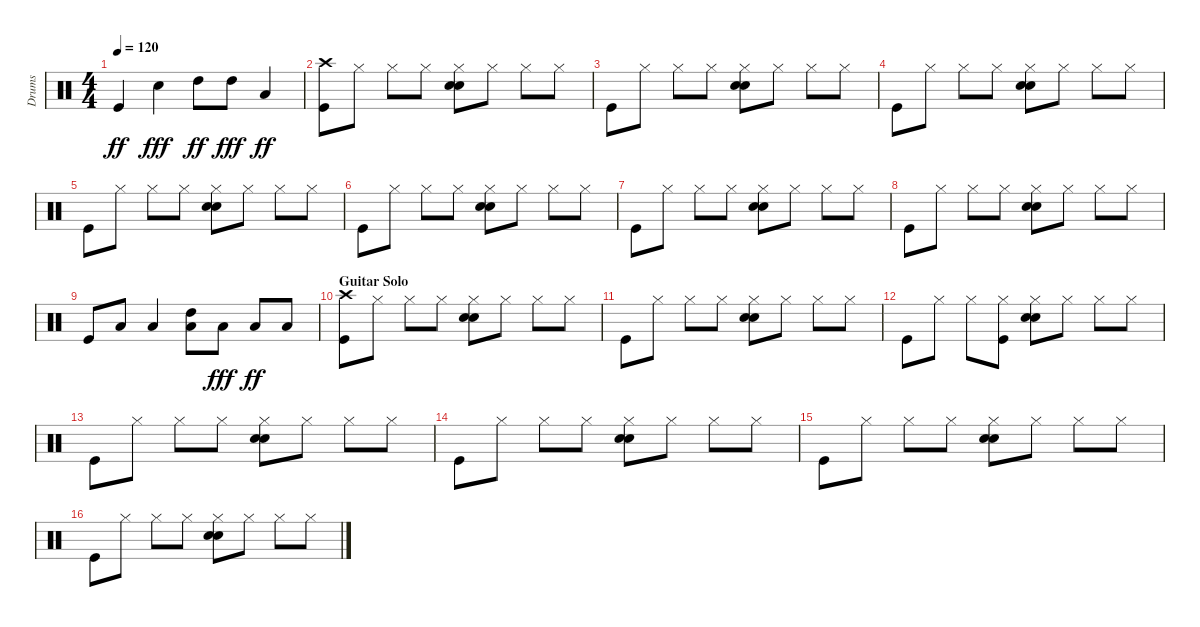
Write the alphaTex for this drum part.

\track ("Drums" "Drums") {instrument percussion}
\staff {score}
\articulation defaults
\ts (4 4)
\tempo 120
\clef neutral
\ks c "Kick (hit)".4{dy ff} "Snare (hit) 2".4{dy fff} "High Tom (hit)".8{dy ff} "High Tom (hit)".8{dy fff} "Low Tom (hit)".4{dy ff}
|
("Crash high (hit)" "Kick (hit)").8 "Hi-Hat (closed)".8 "Hi-Hat (closed)".8 "Hi-Hat (closed)".8 ("Electric Snare (hit)" "Hi-Hat (closed)" "Snare (hit) 2").8 "Hi-Hat (closed)".8 "Hi-Hat (closed)".8 "Hi-Hat (closed)".8 |
"Kick (hit)".8 "Hi-Hat (closed)".8 "Hi-Hat (closed)".8 "Hi-Hat (closed)".8 ("Electric Snare (hit)" "Hi-Hat (closed)" "Snare (hit) 2").8 "Hi-Hat (closed)".8 "Hi-Hat (closed)".8 "Hi-Hat (closed)".8 |
"Kick (hit)".8 "Hi-Hat (closed)".8 "Hi-Hat (closed)".8 "Hi-Hat (closed)".8 ("Electric Snare (hit)" "Hi-Hat (closed)" "Snare (hit) 2").8 "Hi-Hat (closed)".8 "Hi-Hat (closed)".8 "Hi-Hat (closed)".8 |
"Kick (hit)".8 "Hi-Hat (closed)".8 "Hi-Hat (closed)".8 "Hi-Hat (closed)".8 ("Electric Snare (hit)" "Hi-Hat (closed)" "Snare (hit) 2").8 "Hi-Hat (closed)".8 "Hi-Hat (closed)".8 "Hi-Hat (closed)".8 |
"Kick (hit)".8 "Hi-Hat (closed)".8 "Hi-Hat (closed)".8 "Hi-Hat (closed)".8 ("Electric Snare (hit)" "Hi-Hat (closed)" "Snare (hit) 2").8 "Hi-Hat (closed)".8 "Hi-Hat (closed)".8 "Hi-Hat (closed)".8 |
"Kick (hit)".8 "Hi-Hat (closed)".8 "Hi-Hat (closed)".8 "Hi-Hat (closed)".8 ("Electric Snare (hit)" "Hi-Hat (closed)" "Snare (hit) 2").8 "Hi-Hat (closed)".8 "Hi-Hat (closed)".8 "Hi-Hat (closed)".8 |
"Kick (hit)".8 "Hi-Hat (closed)".8 "Hi-Hat (closed)".8 "Hi-Hat (closed)".8 ("Electric Snare (hit)" "Hi-Hat (closed)" "Snare (hit) 2").8 "Hi-Hat (closed)".8 "Hi-Hat (closed)".8 "Hi-Hat (closed)".8 |
"Kick (hit)".8 "Low Tom (hit)".8 "Low Floor Tom (hit)".4 ("Low Tom (hit)" "High Tom (hit)").8 "Low Tom (hit)".8{dy fff} "Low Tom (hit)".8{dy ff} "Low Floor Tom (hit)".8 |
\section ("" "Guitar Solo")
("Crash high (hit)" "Kick (hit)").8 "Hi-Hat (closed)".8 "Hi-Hat (closed)".8 "Hi-Hat (closed)".8 ("Electric Snare (hit)" "Hi-Hat (closed)" "Snare (hit) 2").8 "Hi-Hat (closed)".8 "Hi-Hat (closed)".8 "Hi-Hat (closed)".8 |
"Kick (hit)".8 "Hi-Hat (closed)".8 "Hi-Hat (closed)".8 "Hi-Hat (closed)".8 ("Electric Snare (hit)" "Hi-Hat (closed)" "Snare (hit) 2").8 "Hi-Hat (closed)".8 "Hi-Hat (closed)".8 "Hi-Hat (closed)".8 |
"Kick (hit)".8 "Hi-Hat (closed)".8 "Hi-Hat (closed)".8 ("Kick (hit)" "Hi-Hat (closed)").8 ("Electric Snare (hit)" "Hi-Hat (closed)" "Snare (hit) 2").8 "Hi-Hat (closed)".8 "Hi-Hat (closed)".8 "Hi-Hat (closed)".8 |
"Kick (hit)".8 "Hi-Hat (closed)".8 "Hi-Hat (closed)".8 "Hi-Hat (closed)".8 ("Electric Snare (hit)" "Hi-Hat (closed)" "Snare (hit) 2").8 "Hi-Hat (closed)".8 "Hi-Hat (closed)".8 "Hi-Hat (closed)".8 |
"Kick (hit)".8 "Hi-Hat (closed)".8 "Hi-Hat (closed)".8 "Hi-Hat (closed)".8 ("Electric Snare (hit)" "Hi-Hat (closed)" "Snare (hit) 2").8 "Hi-Hat (closed)".8 "Hi-Hat (closed)".8 "Hi-Hat (closed)".8 |
"Kick (hit)".8 "Hi-Hat (closed)".8 "Hi-Hat (closed)".8 "Hi-Hat (closed)".8 ("Electric Snare (hit)" "Hi-Hat (closed)" "Snare (hit) 2").8 "Hi-Hat (closed)".8 "Hi-Hat (closed)".8 "Hi-Hat (closed)".8 |
"Kick (hit)".8 "Hi-Hat (closed)".8 "Hi-Hat (closed)".8 "Hi-Hat (closed)".8 ("Electric Snare (hit)" "Hi-Hat (closed)" "Snare (hit) 2").8 "Hi-Hat (closed)".8 "Hi-Hat (closed)".8 "Hi-Hat (closed)".8
